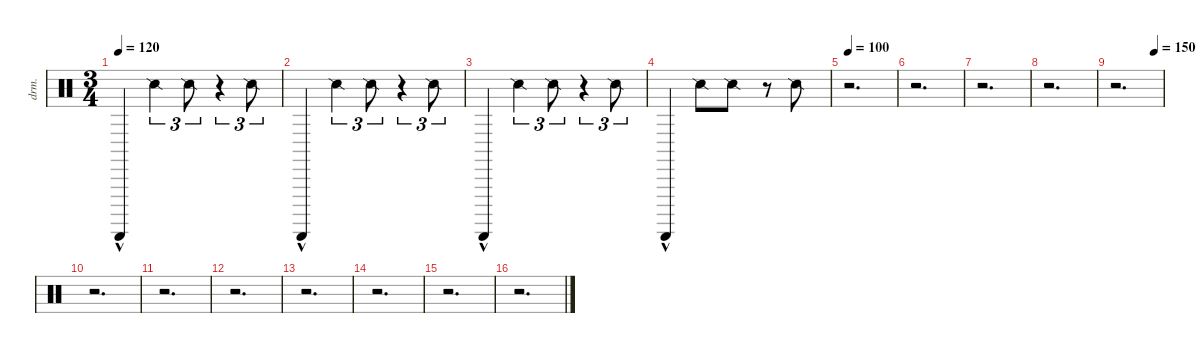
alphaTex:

\defaultSystemsLayout 4
\hideDynamics
\bracketExtendMode nobrackets
\otherSystemsTrackNameOrientation horizontal
\track ("Aux. Percussion" "drm.") {instrument percussion}
\staff {score}
\articulation defaults
\ts (3 4)
\tempo 120
\clef neutral
\ks c "Guiro (scrap-return)"{hac}.4{dy f beam Up} "Snare (side stick) 2".4{tu (3 2) dy mf beam Down} "Snare (side stick) 2".8{tu (3 2) beam Down}
r.4{tu (3 2) beam Down} "Snare (side stick) 2".8{tu (3 2) beam Down} |
"Guiro (scrap-return)"{hac}.4{dy f beam Up} "Snare (side stick) 2".4{tu (3 2) dy mf beam Down} "Snare (side stick) 2".8{tu (3 2) beam Down} r.4{tu (3 2) beam Down} "Snare (side stick) 2".8{tu (3 2) beam Down} |
"Guiro (scrap-return)"{hac}.4{dy f beam Up} "Snare (side stick) 2".4{tu (3 2) dy mf beam Down} "Snare (side stick) 2".8{tu (3 2) beam Down} r.4{tu (3 2) beam Down} "Snare (side stick) 2".8{tu (3 2) beam Down} |
"Guiro (scrap-return)"{hac}.4{dy f beam Up} "Snare (side stick) 2".8{dy mf beam Down} "Snare (side stick) 2".8{beam Down} r.8{beam Down} "Snare (side stick) 2".8{beam Down} |
\tempo 100
r.2{d beam Down} |
r.2{d beam Down} |
r.2{d beam Down} |
r.2{d beam Down} |
\tempo (150 0.833333)
r.2{d beam Down} |
r.2{d beam Down} |
r.2{d beam Down} |
r.2{d beam Down} |
r.2{d beam Down} |
r.2{d beam Down} |
r.2{d beam Down} |
r.2{d beam Down}
